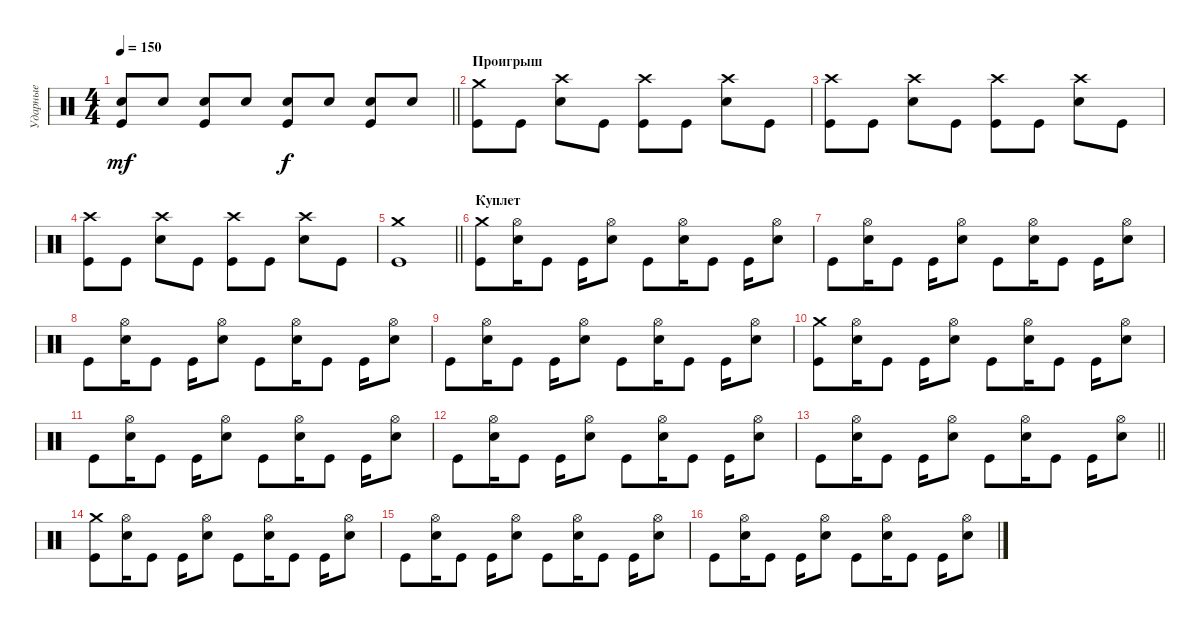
\track ("Ударные" "Ударные") {instrument percussion}
\staff {score}
\articulation defaults
\ts (4 4)
\tempo 150
\clef neutral
\barLineRight lightlight
\ks c
("Electric Snare (hit)" "Kick (hit)").8{dy mf} "Electric Snare (hit)".8 ("Electric Snare (hit)" "Kick (hit)").8 "Electric Snare (hit)".8 ("Electric Snare (hit)" "Kick (hit)").8{dy f} "Electric Snare (hit)".8 ("Electric Snare (hit)" "Kick (hit)").8 "Electric Snare (hit)".8 |
\section ("" "Проигрыш")
("Crash medium (hit)" "Kick (hit)").8 "Kick (hit)".8 ("Crash high (hit)" "Electric Snare (hit)").8 "Kick (hit)".8 ("Crash high (hit)" "Kick (hit)").8 "Kick (hit)".8 ("Crash high (hit)" "Electric Snare (hit)").8 "Kick (hit)".8 |
("Crash high (hit)" "Kick (hit)").8 "Kick (hit)".8 ("Crash high (hit)" "Electric Snare (hit)").8 "Kick (hit)".8 ("Crash high (hit)" "Kick (hit)").8 "Kick (hit)".8 ("Crash high (hit)" "Electric Snare (hit)").8 "Kick (hit)".8 |
("Crash high (hit)" "Kick (hit)").8 "Kick (hit)".8 ("Crash high (hit)" "Electric Snare (hit)").8 "Kick (hit)".8 ("Crash high (hit)" "Kick (hit)").8 "Kick (hit)".8 ("Crash high (hit)" "Electric Snare (hit)").8 "Kick (hit)".8 |
\barLineRight lightlight
("Crash medium (hit)" "Kick (hit)").1 |
\section ("" "Куплет")
("Crash medium (hit)" "Kick (hit)").8 ("Hi-Hat (open)" "Electric Snare (hit)").16 "Kick (hit)".8 "Kick (hit)".16 ("Hi-Hat (open)" "Electric Snare (hit)").8 "Kick (hit)".8 ("Hi-Hat (open)" "Electric Snare (hit)").16 "Kick (hit)".8 "Kick (hit)".16 ("Hi-Hat (open)" "Electric Snare (hit)").8 |
"Kick (hit)".8 ("Hi-Hat (open)" "Electric Snare (hit)").16 "Kick (hit)".8 "Kick (hit)".16 ("Hi-Hat (open)" "Electric Snare (hit)").8 "Kick (hit)".8 ("Hi-Hat (open)" "Electric Snare (hit)").16 "Kick (hit)".8 "Kick (hit)".16 ("Hi-Hat (open)" "Electric Snare (hit)").8 |
"Kick (hit)".8 ("Hi-Hat (open)" "Electric Snare (hit)").16 "Kick (hit)".8 "Kick (hit)".16 ("Hi-Hat (open)" "Electric Snare (hit)").8 "Kick (hit)".8 ("Hi-Hat (open)" "Electric Snare (hit)").16 "Kick (hit)".8 "Kick (hit)".16 ("Hi-Hat (open)" "Electric Snare (hit)").8 |
"Kick (hit)".8 ("Hi-Hat (open)" "Electric Snare (hit)").16 "Kick (hit)".8 "Kick (hit)".16 ("Hi-Hat (open)" "Electric Snare (hit)").8 "Kick (hit)".8 ("Hi-Hat (open)" "Electric Snare (hit)").16 "Kick (hit)".8 "Kick (hit)".16 ("Hi-Hat (open)" "Electric Snare (hit)").8 |
("Crash medium (hit)" "Kick (hit)").8 ("Hi-Hat (open)" "Electric Snare (hit)").16 "Kick (hit)".8 "Kick (hit)".16 ("Hi-Hat (open)" "Electric Snare (hit)").8 "Kick (hit)".8 ("Hi-Hat (open)" "Electric Snare (hit)").16 "Kick (hit)".8 "Kick (hit)".16 ("Hi-Hat (open)" "Electric Snare (hit)").8 |
"Kick (hit)".8 ("Hi-Hat (open)" "Electric Snare (hit)").16 "Kick (hit)".8 "Kick (hit)".16 ("Hi-Hat (open)" "Electric Snare (hit)").8 "Kick (hit)".8 ("Hi-Hat (open)" "Electric Snare (hit)").16 "Kick (hit)".8 "Kick (hit)".16 ("Hi-Hat (open)" "Electric Snare (hit)").8 |
"Kick (hit)".8 ("Hi-Hat (open)" "Electric Snare (hit)").16 "Kick (hit)".8 "Kick (hit)".16 ("Hi-Hat (open)" "Electric Snare (hit)").8 "Kick (hit)".8 ("Hi-Hat (open)" "Electric Snare (hit)").16 "Kick (hit)".8 "Kick (hit)".16 ("Hi-Hat (open)" "Electric Snare (hit)").8 |
\barLineRight lightlight "Kick (hit)".8
("Hi-Hat (open)" "Electric Snare (hit)").16 "Kick (hit)".8 "Kick (hit)".16 ("Hi-Hat (open)" "Electric Snare (hit)").8 "Kick (hit)".8 ("Hi-Hat (open)" "Electric Snare (hit)").16 "Kick (hit)".8 "Kick (hit)".16 ("Hi-Hat (open)" "Electric Snare (hit)").8 |
\section ("" " ")
("Crash medium (hit)" "Kick (hit)").8 ("Hi-Hat (open)" "Electric Snare (hit)").16 "Kick (hit)".8 "Kick (hit)".16 ("Hi-Hat (open)" "Electric Snare (hit)").8 "Kick (hit)".8 ("Hi-Hat (open)" "Electric Snare (hit)").16 "Kick (hit)".8 "Kick (hit)".16 ("Hi-Hat (open)" "Electric Snare (hit)").8 |
"Kick (hit)".8 ("Hi-Hat (open)" "Electric Snare (hit)").16 "Kick (hit)".8 "Kick (hit)".16 ("Hi-Hat (open)" "Electric Snare (hit)").8 "Kick (hit)".8 ("Hi-Hat (open)" "Electric Snare (hit)").16 "Kick (hit)".8 "Kick (hit)".16 ("Hi-Hat (open)" "Electric Snare (hit)").8 |
"Kick (hit)".8 ("Hi-Hat (open)" "Electric Snare (hit)").16 "Kick (hit)".8 "Kick (hit)".16 ("Hi-Hat (open)" "Electric Snare (hit)").8 "Kick (hit)".8 ("Hi-Hat (open)" "Electric Snare (hit)").16 "Kick (hit)".8 "Kick (hit)".16 ("Hi-Hat (open)" "Electric Snare (hit)").8
